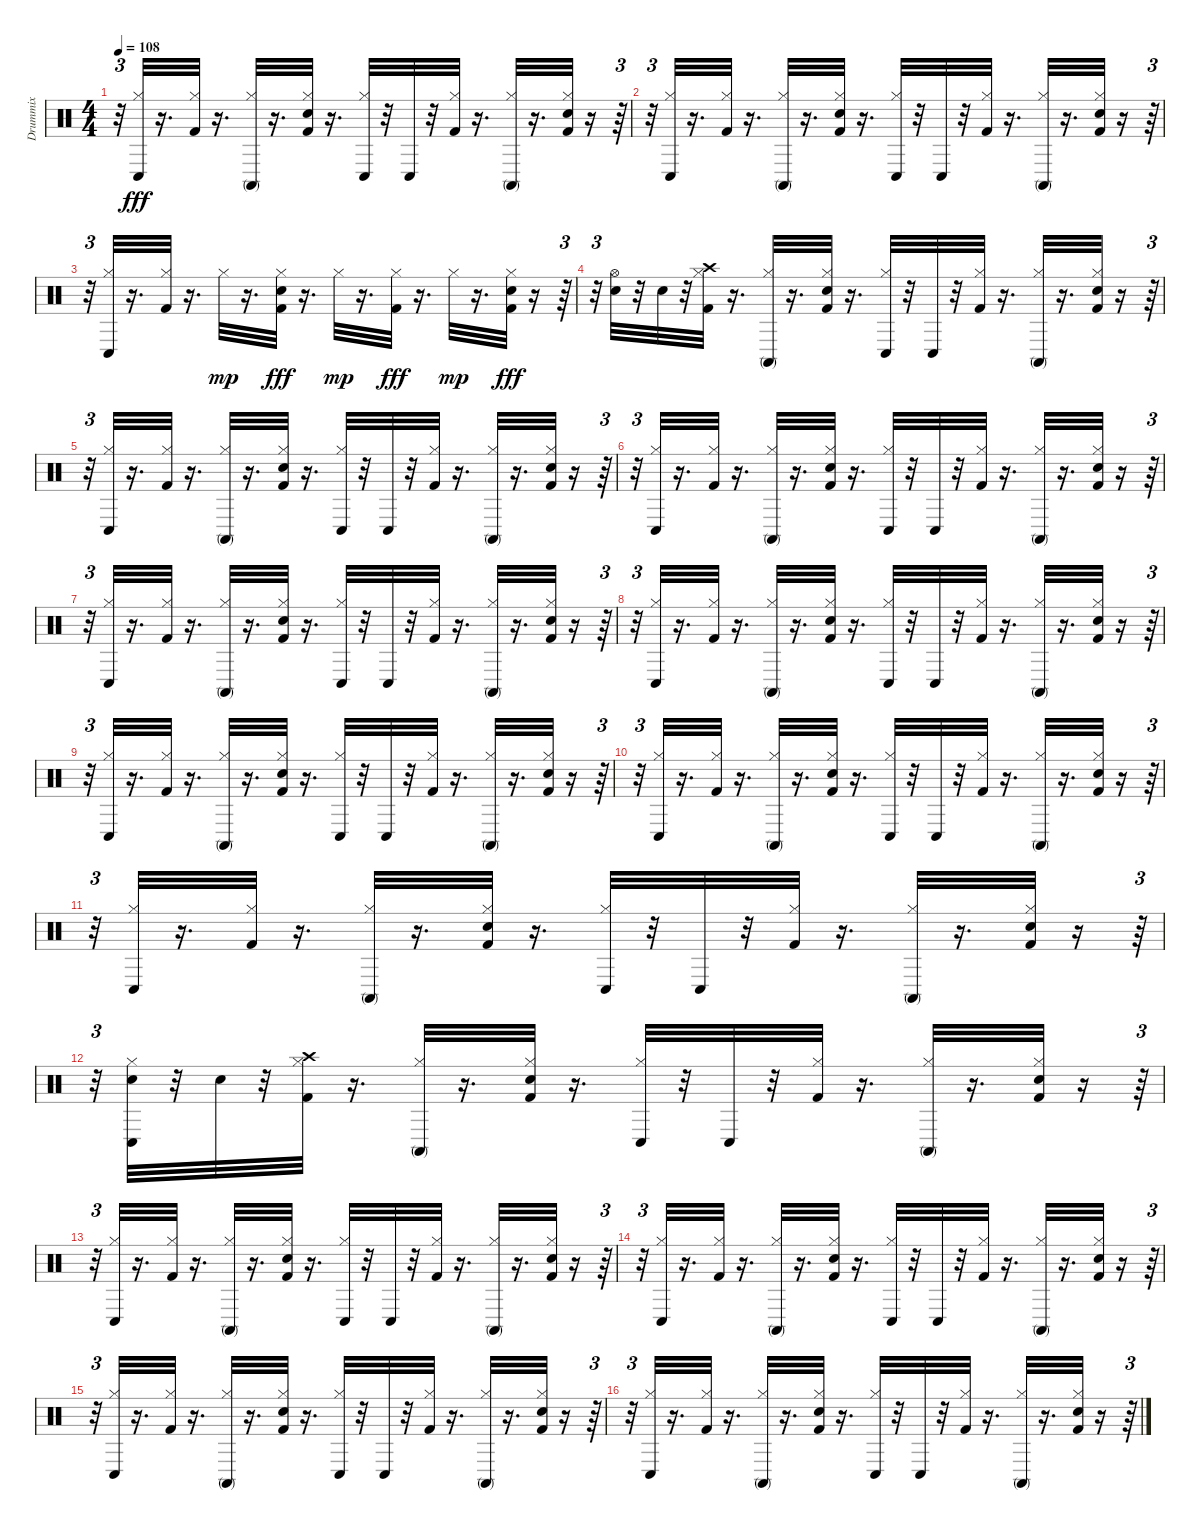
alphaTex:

\track ("Drummix" "Drummix") {instrument percussion}
\staff {score}
\articulation defaults
\ts (4 4)
\tempo 108
\clef neutral
\ks c
r.32{tu (3 2) dy fff} ("Hi-Hat (closed)" "Conga low (hit)").32 r.16{d} ("Kick (hit) 2" "Hi-Hat (closed)").32 r.16{d} ("Hi-Hat (closed)" "Conga high (mute)").32 r.16{d} ("Kick (hit) 2" "Snare (hit) 2" "Hi-Hat (closed)").32 r.16{d} ("Hi-Hat (closed)" "Conga low (hit)").32 r.32 "Conga low (hit)".32 r.32 ("Kick (hit) 2" "Hi-Hat (closed)").32 r.16{d} ("Hi-Hat (closed)" "Conga high (mute)").32 r.16{d} ("Kick (hit) 2" "Snare (hit) 2" "Hi-Hat (closed)").32 r.16 r.64{tu (3 2)} |
r.32{tu (3 2)} ("Hi-Hat (closed)" "Conga low (hit)").32 r.16{d} ("Kick (hit) 2" "Hi-Hat (closed)").32 r.16{d} ("Hi-Hat (closed)" "Conga high (mute)").32 r.16{d} ("Kick (hit) 2" "Snare (hit) 2" "Hi-Hat (closed)").32 r.16{d} ("Hi-Hat (closed)" "Conga low (hit)").32 r.32 "Conga low (hit)".32 r.32 ("Kick (hit) 2" "Hi-Hat (closed)").32 r.16{d} ("Hi-Hat (closed)" "Conga high (mute)").32 r.16{d} ("Kick (hit) 2" "Snare (hit) 2" "Hi-Hat (closed)").32 r.16 r.64{tu (3 2)} |
r.32{tu (3 2)} ("Hi-Hat (closed)" "Conga low (hit)").32 r.16{d} ("Kick (hit) 2" "Hi-Hat (closed)").32 r.16{d} "Hi-Hat (closed)".32{dy mp} r.16{d} ("Kick (hit) 2" "Snare (hit) 2" "Hi-Hat (closed)").32{dy fff} r.16{d} "Hi-Hat (closed)".32{dy mp} r.16{d} ("Kick (hit) 2" "Hi-Hat (closed)").32{dy fff} r.16{d} "Hi-Hat (closed)".32{dy mp} r.16{d} ("Kick (hit) 2" "Snare (hit) 2" "Hi-Hat (closed)").32{dy fff} r.16 r.64{tu (3 2)} |
r.32{tu (3 2)} ("Snare (hit) 2" "Hi-Hat (open)").32 r.32 "Snare (hit) 2".32 r.32 ("Kick (hit) 2" "Hi-Hat (closed)" "Crash high (hit)").32 r.16{d} ("Hi-Hat (closed)" "Conga high (mute)").32 r.16{d} ("Kick (hit) 2" "Snare (hit) 2" "Hi-Hat (closed)").32 r.16{d} ("Hi-Hat (closed)" "Conga low (hit)").32 r.32 "Conga low (hit)".32 r.32 ("Kick (hit) 2" "Hi-Hat (closed)").32 r.16{d} ("Hi-Hat (closed)" "Conga high (mute)").32 r.16{d} ("Kick (hit) 2" "Snare (hit) 2" "Hi-Hat (closed)").32 r.16 r.64{tu (3 2)} |
r.32{tu (3 2)} ("Hi-Hat (closed)" "Conga low (hit)").32 r.16{d} ("Kick (hit) 2" "Hi-Hat (closed)").32 r.16{d} ("Hi-Hat (closed)" "Conga high (mute)").32 r.16{d} ("Kick (hit) 2" "Snare (hit) 2" "Hi-Hat (closed)").32 r.16{d} ("Hi-Hat (closed)" "Conga low (hit)").32 r.32 "Conga low (hit)".32 r.32 ("Kick (hit) 2" "Hi-Hat (closed)").32 r.16{d} ("Hi-Hat (closed)" "Conga high (mute)").32 r.16{d} ("Kick (hit) 2" "Snare (hit) 2" "Hi-Hat (closed)").32 r.16 r.64{tu (3 2)} |
r.32{tu (3 2)} ("Hi-Hat (closed)" "Conga low (hit)").32 r.16{d} ("Kick (hit) 2" "Hi-Hat (closed)").32 r.16{d} ("Hi-Hat (closed)" "Conga high (mute)").32 r.16{d} ("Kick (hit) 2" "Snare (hit) 2" "Hi-Hat (closed)").32 r.16{d} ("Hi-Hat (closed)" "Conga low (hit)").32 r.32 "Conga low (hit)".32 r.32 ("Kick (hit) 2" "Hi-Hat (closed)").32 r.16{d} ("Hi-Hat (closed)" "Conga high (mute)").32 r.16{d} ("Kick (hit) 2" "Snare (hit) 2" "Hi-Hat (closed)").32 r.16 r.64{tu (3 2)} |
r.32{tu (3 2)} ("Hi-Hat (closed)" "Conga low (hit)").32 r.16{d} ("Kick (hit) 2" "Hi-Hat (closed)").32 r.16{d} ("Hi-Hat (closed)" "Conga high (mute)").32 r.16{d} ("Kick (hit) 2" "Snare (hit) 2" "Hi-Hat (closed)").32 r.16{d} ("Hi-Hat (closed)" "Conga low (hit)").32 r.32 "Conga low (hit)".32 r.32 ("Kick (hit) 2" "Hi-Hat (closed)").32 r.16{d} ("Hi-Hat (closed)" "Conga high (mute)").32 r.16{d} ("Kick (hit) 2" "Snare (hit) 2" "Hi-Hat (closed)").32 r.16 r.64{tu (3 2)} |
r.32{tu (3 2)} ("Hi-Hat (closed)" "Conga low (hit)").32 r.16{d} ("Kick (hit) 2" "Hi-Hat (closed)").32 r.16{d} ("Hi-Hat (closed)" "Conga high (mute)").32 r.16{d} ("Kick (hit) 2" "Snare (hit) 2" "Hi-Hat (closed)").32 r.16{d} ("Hi-Hat (closed)" "Conga low (hit)").32 r.32 "Conga low (hit)".32 r.32 ("Kick (hit) 2" "Hi-Hat (closed)").32 r.16{d} ("Hi-Hat (closed)" "Conga high (mute)").32 r.16{d} ("Kick (hit) 2" "Snare (hit) 2" "Hi-Hat (closed)").32 r.16 r.64{tu (3 2)} |
r.32{tu (3 2)} ("Hi-Hat (closed)" "Conga low (hit)").32 r.16{d} ("Kick (hit) 2" "Hi-Hat (closed)").32 r.16{d} ("Hi-Hat (closed)" "Conga high (mute)").32 r.16{d} ("Kick (hit) 2" "Snare (hit) 2" "Hi-Hat (closed)").32 r.16{d} ("Hi-Hat (closed)" "Conga low (hit)").32 r.32 "Conga low (hit)".32 r.32 ("Kick (hit) 2" "Hi-Hat (closed)").32 r.16{d} ("Hi-Hat (closed)" "Conga high (mute)").32 r.16{d} ("Kick (hit) 2" "Snare (hit) 2" "Hi-Hat (closed)").32 r.16 r.64{tu (3 2)} |
r.32{tu (3 2)} ("Hi-Hat (closed)" "Conga low (hit)").32 r.16{d} ("Kick (hit) 2" "Hi-Hat (closed)").32 r.16{d} ("Hi-Hat (closed)" "Conga high (mute)").32 r.16{d} ("Kick (hit) 2" "Snare (hit) 2" "Hi-Hat (closed)").32 r.16{d} ("Hi-Hat (closed)" "Conga low (hit)").32 r.32 "Conga low (hit)".32 r.32 ("Kick (hit) 2" "Hi-Hat (closed)").32 r.16{d} ("Hi-Hat (closed)" "Conga high (mute)").32 r.16{d} ("Kick (hit) 2" "Snare (hit) 2" "Hi-Hat (closed)").32 r.16 r.64{tu (3 2)} |
r.32{tu (3 2)} ("Hi-Hat (closed)" "Conga low (hit)").32 r.16{d} ("Kick (hit) 2" "Hi-Hat (closed)").32 r.16{d} ("Hi-Hat (closed)" "Conga high (mute)").32 r.16{d} ("Kick (hit) 2" "Snare (hit) 2" "Hi-Hat (closed)").32 r.16{d} ("Hi-Hat (closed)" "Conga low (hit)").32 r.32 "Conga low (hit)".32 r.32 ("Kick (hit) 2" "Hi-Hat (closed)").32 r.16{d} ("Hi-Hat (closed)" "Conga high (mute)").32 r.16{d} ("Kick (hit) 2" "Snare (hit) 2" "Hi-Hat (closed)").32 r.16 r.64{tu (3 2)} |
r.32{tu (3 2)} ("Snare (hit) 2" "Hi-Hat (closed)" "Conga low (hit)").32 r.32 "Snare (hit) 2".32 r.32 ("Kick (hit) 2" "Hi-Hat (closed)" "Crash high (hit)").32 r.16{d} ("Hi-Hat (closed)" "Conga high (mute)").32 r.16{d} ("Kick (hit) 2" "Snare (hit) 2" "Hi-Hat (closed)").32 r.16{d} ("Hi-Hat (closed)" "Conga low (hit)").32 r.32 "Conga low (hit)".32 r.32 ("Kick (hit) 2" "Hi-Hat (closed)").32 r.16{d} ("Hi-Hat (closed)" "Conga high (mute)").32 r.16{d} ("Kick (hit) 2" "Snare (hit) 2" "Hi-Hat (closed)").32 r.16 r.64{tu (3 2)} |
r.32{tu (3 2)} ("Hi-Hat (closed)" "Conga low (hit)").32 r.16{d} ("Kick (hit) 2" "Hi-Hat (closed)").32 r.16{d} ("Hi-Hat (closed)" "Conga high (mute)").32 r.16{d} ("Kick (hit) 2" "Snare (hit) 2" "Hi-Hat (closed)").32 r.16{d} ("Hi-Hat (closed)" "Conga low (hit)").32 r.32 "Conga low (hit)".32 r.32 ("Kick (hit) 2" "Hi-Hat (closed)").32 r.16{d} ("Hi-Hat (closed)" "Conga high (mute)").32 r.16{d} ("Kick (hit) 2" "Snare (hit) 2" "Hi-Hat (closed)").32 r.16 r.64{tu (3 2)} |
r.32{tu (3 2)} ("Hi-Hat (closed)" "Conga low (hit)").32 r.16{d} ("Kick (hit) 2" "Hi-Hat (closed)").32 r.16{d} ("Hi-Hat (closed)" "Conga high (mute)").32 r.16{d} ("Kick (hit) 2" "Snare (hit) 2" "Hi-Hat (closed)").32 r.16{d} ("Hi-Hat (closed)" "Conga low (hit)").32 r.32 "Conga low (hit)".32 r.32 ("Kick (hit) 2" "Hi-Hat (closed)").32 r.16{d} ("Hi-Hat (closed)" "Conga high (mute)").32 r.16{d} ("Kick (hit) 2" "Snare (hit) 2" "Hi-Hat (closed)").32 r.16 r.64{tu (3 2)} |
r.32{tu (3 2)} ("Hi-Hat (closed)" "Conga low (hit)").32 r.16{d} ("Kick (hit) 2" "Hi-Hat (closed)").32 r.16{d} ("Hi-Hat (closed)" "Conga high (mute)").32 r.16{d} ("Kick (hit) 2" "Snare (hit) 2" "Hi-Hat (closed)").32 r.16{d} ("Hi-Hat (closed)" "Conga low (hit)").32 r.32 "Conga low (hit)".32 r.32 ("Kick (hit) 2" "Hi-Hat (closed)").32 r.16{d} ("Hi-Hat (closed)" "Conga high (mute)").32 r.16{d} ("Kick (hit) 2" "Snare (hit) 2" "Hi-Hat (closed)").32 r.16 r.64{tu (3 2)} |
r.32{tu (3 2)} ("Hi-Hat (closed)" "Conga low (hit)").32 r.16{d} ("Kick (hit) 2" "Hi-Hat (closed)").32 r.16{d} ("Hi-Hat (closed)" "Conga high (mute)").32 r.16{d} ("Kick (hit) 2" "Snare (hit) 2" "Hi-Hat (closed)").32 r.16{d} ("Hi-Hat (closed)" "Conga low (hit)").32 r.32 "Conga low (hit)".32 r.32 ("Kick (hit) 2" "Hi-Hat (closed)").32 r.16{d} ("Hi-Hat (closed)" "Conga high (mute)").32 r.16{d} ("Kick (hit) 2" "Snare (hit) 2" "Hi-Hat (closed)").32 r.16 r.64{tu (3 2)}
